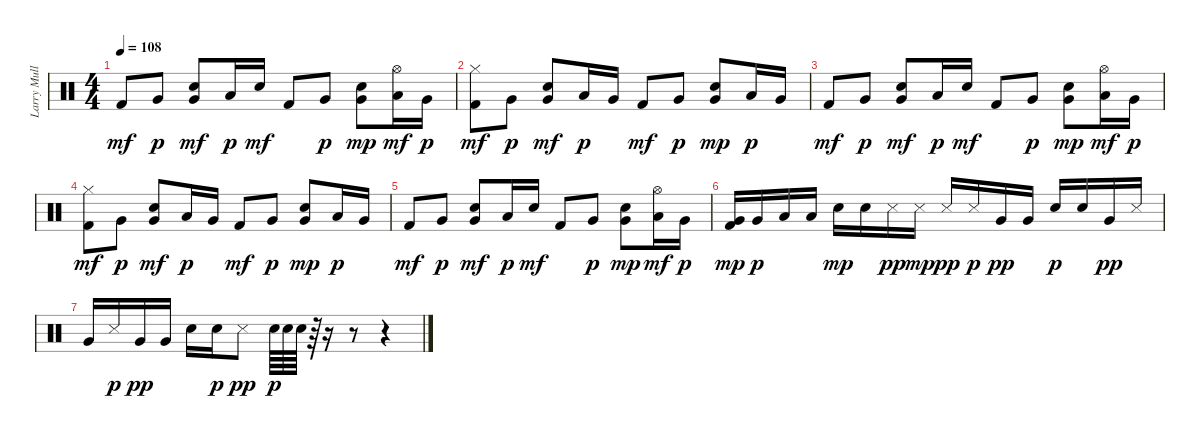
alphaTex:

\track ("Larry Mullen Jr." "Larry Mull") {instrument percussion}
\staff {score}
\articulation defaults
\ts (4 4)
\tempo 108
\clef neutral
\ks c "Kick (hit) 2".8{dy mf} "Very Low Tom (hit)".8{dy p}
("Electric Snare (hit)" "Very Low Tom (hit)").8{dy mf} "Low Floor Tom (hit)".16{dy p} "Electric Snare (hit)".16{dy mf} "Kick (hit) 2".8 "Very Low Tom (hit)".8{dy p} ("Electric Snare (hit)" "Very Low Tom (hit)").8{dy mp} ("Low Floor Tom (hit)" "Hi-Hat (open)").16{dy mf} "Very Low Tom (hit)".16{dy p} |
("Kick (hit) 2" "Hi-Hat (closed)").8{dy mf} "Very Low Tom (hit)".8{dy p} ("Electric Snare (hit)" "Very Low Tom (hit)").8{dy mf} "Low Floor Tom (hit)".16{dy p} "Very Low Tom (hit)".16 "Kick (hit) 2".8{dy mf} "Very Low Tom (hit)".8{dy p} ("Electric Snare (hit)" "Very Low Tom (hit)").8{dy mp} "Low Floor Tom (hit)".16{dy p} "Very Low Tom (hit)".16 |
"Kick (hit) 2".8{dy mf} "Very Low Tom (hit)".8{dy p} ("Electric Snare (hit)" "Very Low Tom (hit)").8{dy mf} "Low Floor Tom (hit)".16{dy p} "Electric Snare (hit)".16{dy mf} "Kick (hit) 2".8 "Very Low Tom (hit)".8{dy p} ("Electric Snare (hit)" "Very Low Tom (hit)").8{dy mp} ("Low Floor Tom (hit)" "Hi-Hat (open)").16{dy mf} "Very Low Tom (hit)".16{dy p} |
("Kick (hit) 2" "Hi-Hat (closed)").8{dy mf} "Very Low Tom (hit)".8{dy p} ("Electric Snare (hit)" "Very Low Tom (hit)").8{dy mf} "Low Floor Tom (hit)".16{dy p} "Very Low Tom (hit)".16 "Kick (hit) 2".8{dy mf} "Very Low Tom (hit)".8{dy p} ("Electric Snare (hit)" "Very Low Tom (hit)").8{dy mp} "Low Floor Tom (hit)".16{dy p} "Very Low Tom (hit)".16 |
"Kick (hit) 2".8{dy mf} "Very Low Tom (hit)".8{dy p} ("Electric Snare (hit)" "Very Low Tom (hit)").8{dy mf} "Low Floor Tom (hit)".16{dy p} "Electric Snare (hit)".16{dy mf} "Kick (hit) 2".8 "Very Low Tom (hit)".8{dy p} ("Electric Snare (hit)" "Very Low Tom (hit)").8{dy mp} ("Low Floor Tom (hit)" "Hi-Hat (open)").16{dy mf} "Very Low Tom (hit)".16{dy p} |
("Very Low Tom (hit)" "Kick (hit) 2").16{dy mp} "Very Low Tom (hit)".16{dy p} "Low Floor Tom (hit)".16 "Low Floor Tom (hit)".16 "Electric Snare (hit)".16{dy mp} "Electric Snare (hit)".16 "Snare (side stick) 3".16{dy pp} "Snare (side stick) 3".16{dy mp} "Snare (side stick) 3".16{dy pp} "Snare (side stick) 3".16{dy p} "Very Low Tom (hit)".16{dy pp} "Very Low Tom (hit)".16 "Electric Snare (hit)".16{dy p} "Electric Snare (hit)".16 "Very Low Tom (hit)".16{dy pp} "Snare (side stick) 3".16 |
"Very Low Tom (hit)".16 "Snare (side stick) 3".16{dy p} "Very Low Tom (hit)".16{dy pp} "Very Low Tom (hit)".16 "Electric Snare (hit)".16 "Electric Snare (hit)".16{dy p} "Snare (side stick) 3".8{dy pp} "Electric Snare (hit)".64{dy p} "Electric Snare (hit)".64 "Electric Snare (hit)".64 r.64 r.16 r.8 r.4
